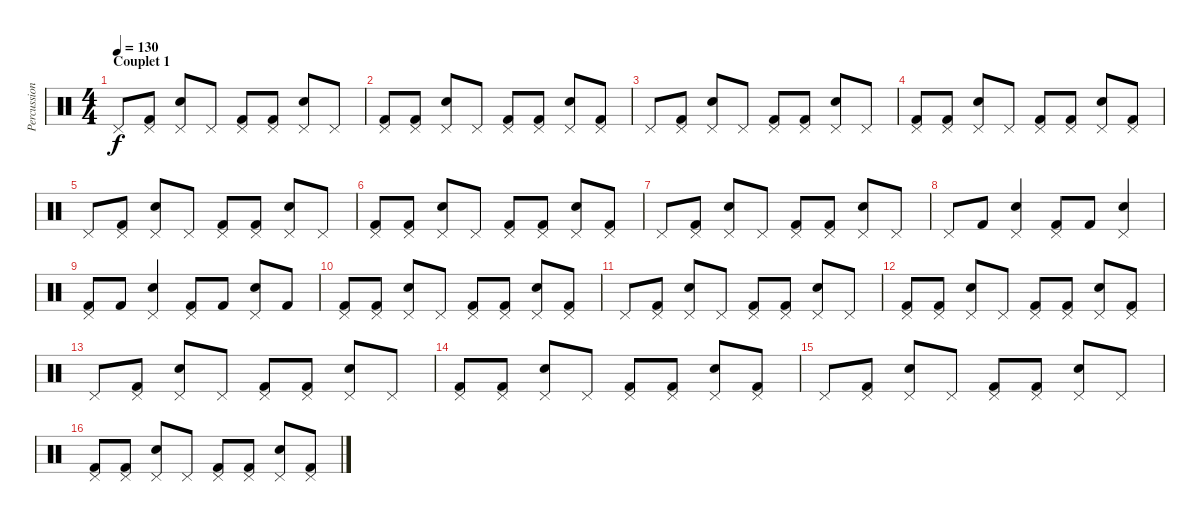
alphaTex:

\track ("Percussions" "Percussion") {instrument percussion}
\staff {score}
\articulation defaults
\ts (4 4)
\section ("" "Couplet 1")
\tempo 130
\clef neutral
\ks c "Pedal Hi-Hat (hit)".8{dy f}
("Pedal Hi-Hat (hit)" "Kick (hit) 2").8 ("Pedal Hi-Hat (hit)" "Electric Snare (hit)").8 "Pedal Hi-Hat (hit)".8 ("Pedal Hi-Hat (hit)" "Kick (hit) 2").8 ("Pedal Hi-Hat (hit)" "Kick (hit) 2").8 ("Pedal Hi-Hat (hit)" "Electric Snare (hit)").8 "Pedal Hi-Hat (hit)".8 |
("Pedal Hi-Hat (hit)" "Kick (hit) 2").8 ("Pedal Hi-Hat (hit)" "Kick (hit) 2").8 ("Pedal Hi-Hat (hit)" "Electric Snare (hit)").8 "Pedal Hi-Hat (hit)".8 ("Pedal Hi-Hat (hit)" "Kick (hit) 2").8 ("Pedal Hi-Hat (hit)" "Kick (hit) 2").8 ("Pedal Hi-Hat (hit)" "Electric Snare (hit)").8 ("Pedal Hi-Hat (hit)" "Kick (hit) 2").8 |
"Pedal Hi-Hat (hit)".8 ("Pedal Hi-Hat (hit)" "Kick (hit) 2").8 ("Pedal Hi-Hat (hit)" "Electric Snare (hit)").8 "Pedal Hi-Hat (hit)".8 ("Pedal Hi-Hat (hit)" "Kick (hit) 2").8 ("Pedal Hi-Hat (hit)" "Kick (hit) 2").8 ("Pedal Hi-Hat (hit)" "Electric Snare (hit)").8 "Pedal Hi-Hat (hit)".8 |
("Pedal Hi-Hat (hit)" "Kick (hit) 2").8 ("Pedal Hi-Hat (hit)" "Kick (hit) 2").8 ("Pedal Hi-Hat (hit)" "Electric Snare (hit)").8 "Pedal Hi-Hat (hit)".8 ("Pedal Hi-Hat (hit)" "Kick (hit) 2").8 ("Pedal Hi-Hat (hit)" "Kick (hit) 2").8 ("Pedal Hi-Hat (hit)" "Electric Snare (hit)").8 ("Pedal Hi-Hat (hit)" "Kick (hit) 2").8 |
"Pedal Hi-Hat (hit)".8 ("Pedal Hi-Hat (hit)" "Kick (hit) 2").8 ("Pedal Hi-Hat (hit)" "Electric Snare (hit)").8 "Pedal Hi-Hat (hit)".8 ("Pedal Hi-Hat (hit)" "Kick (hit) 2").8 ("Pedal Hi-Hat (hit)" "Kick (hit) 2").8 ("Pedal Hi-Hat (hit)" "Electric Snare (hit)").8 "Pedal Hi-Hat (hit)".8 |
("Pedal Hi-Hat (hit)" "Kick (hit) 2").8 ("Pedal Hi-Hat (hit)" "Kick (hit) 2").8 ("Pedal Hi-Hat (hit)" "Electric Snare (hit)").8 "Pedal Hi-Hat (hit)".8 ("Pedal Hi-Hat (hit)" "Kick (hit) 2").8 ("Pedal Hi-Hat (hit)" "Kick (hit) 2").8 ("Pedal Hi-Hat (hit)" "Electric Snare (hit)").8 ("Pedal Hi-Hat (hit)" "Kick (hit) 2").8 |
"Pedal Hi-Hat (hit)".8 ("Pedal Hi-Hat (hit)" "Kick (hit) 2").8 ("Pedal Hi-Hat (hit)" "Electric Snare (hit)").8 "Pedal Hi-Hat (hit)".8 ("Pedal Hi-Hat (hit)" "Kick (hit) 2").8 ("Pedal Hi-Hat (hit)" "Kick (hit) 2").8 ("Pedal Hi-Hat (hit)" "Electric Snare (hit)").8 "Pedal Hi-Hat (hit)".8 |
"Pedal Hi-Hat (hit)".8 "Kick (hit) 2".8 ("Pedal Hi-Hat (hit)" "Electric Snare (hit)").4 ("Pedal Hi-Hat (hit)" "Kick (hit) 2").8 "Kick (hit) 2".8 ("Pedal Hi-Hat (hit)" "Electric Snare (hit)").4 |
("Pedal Hi-Hat (hit)" "Kick (hit) 2").8 "Kick (hit) 2".8 ("Pedal Hi-Hat (hit)" "Electric Snare (hit)").4 ("Pedal Hi-Hat (hit)" "Kick (hit) 2").8 "Kick (hit) 2".8 ("Pedal Hi-Hat (hit)" "Electric Snare (hit)").8 "Kick (hit) 2".8 |
("Pedal Hi-Hat (hit)" "Kick (hit) 2").8 ("Pedal Hi-Hat (hit)" "Kick (hit) 2").8 ("Pedal Hi-Hat (hit)" "Electric Snare (hit)").8 "Pedal Hi-Hat (hit)".8 ("Pedal Hi-Hat (hit)" "Kick (hit) 2").8 ("Pedal Hi-Hat (hit)" "Kick (hit) 2").8 ("Pedal Hi-Hat (hit)" "Electric Snare (hit)").8 ("Pedal Hi-Hat (hit)" "Kick (hit) 2").8 |
"Pedal Hi-Hat (hit)".8 ("Pedal Hi-Hat (hit)" "Kick (hit) 2").8 ("Pedal Hi-Hat (hit)" "Electric Snare (hit)").8 "Pedal Hi-Hat (hit)".8 ("Pedal Hi-Hat (hit)" "Kick (hit) 2").8 ("Pedal Hi-Hat (hit)" "Kick (hit) 2").8 ("Pedal Hi-Hat (hit)" "Electric Snare (hit)").8 "Pedal Hi-Hat (hit)".8 |
("Pedal Hi-Hat (hit)" "Kick (hit) 2").8 ("Pedal Hi-Hat (hit)" "Kick (hit) 2").8 ("Pedal Hi-Hat (hit)" "Electric Snare (hit)").8 "Pedal Hi-Hat (hit)".8 ("Pedal Hi-Hat (hit)" "Kick (hit) 2").8 ("Pedal Hi-Hat (hit)" "Kick (hit) 2").8 ("Pedal Hi-Hat (hit)" "Electric Snare (hit)").8 ("Pedal Hi-Hat (hit)" "Kick (hit) 2").8 |
"Pedal Hi-Hat (hit)".8 ("Pedal Hi-Hat (hit)" "Kick (hit) 2").8 ("Pedal Hi-Hat (hit)" "Electric Snare (hit)").8 "Pedal Hi-Hat (hit)".8 ("Pedal Hi-Hat (hit)" "Kick (hit) 2").8 ("Pedal Hi-Hat (hit)" "Kick (hit) 2").8 ("Pedal Hi-Hat (hit)" "Electric Snare (hit)").8 "Pedal Hi-Hat (hit)".8 |
("Pedal Hi-Hat (hit)" "Kick (hit) 2").8 ("Pedal Hi-Hat (hit)" "Kick (hit) 2").8 ("Pedal Hi-Hat (hit)" "Electric Snare (hit)").8 "Pedal Hi-Hat (hit)".8 ("Pedal Hi-Hat (hit)" "Kick (hit) 2").8 ("Pedal Hi-Hat (hit)" "Kick (hit) 2").8 ("Pedal Hi-Hat (hit)" "Electric Snare (hit)").8 ("Pedal Hi-Hat (hit)" "Kick (hit) 2").8 |
"Pedal Hi-Hat (hit)".8 ("Pedal Hi-Hat (hit)" "Kick (hit) 2").8 ("Pedal Hi-Hat (hit)" "Electric Snare (hit)").8 "Pedal Hi-Hat (hit)".8 ("Pedal Hi-Hat (hit)" "Kick (hit) 2").8 ("Pedal Hi-Hat (hit)" "Kick (hit) 2").8 ("Pedal Hi-Hat (hit)" "Electric Snare (hit)").8 "Pedal Hi-Hat (hit)".8 |
("Pedal Hi-Hat (hit)" "Kick (hit) 2").8 ("Pedal Hi-Hat (hit)" "Kick (hit) 2").8 ("Pedal Hi-Hat (hit)" "Electric Snare (hit)").8 "Pedal Hi-Hat (hit)".8 ("Pedal Hi-Hat (hit)" "Kick (hit) 2").8 ("Pedal Hi-Hat (hit)" "Kick (hit) 2").8 ("Pedal Hi-Hat (hit)" "Electric Snare (hit)").8 ("Pedal Hi-Hat (hit)" "Kick (hit) 2").8
